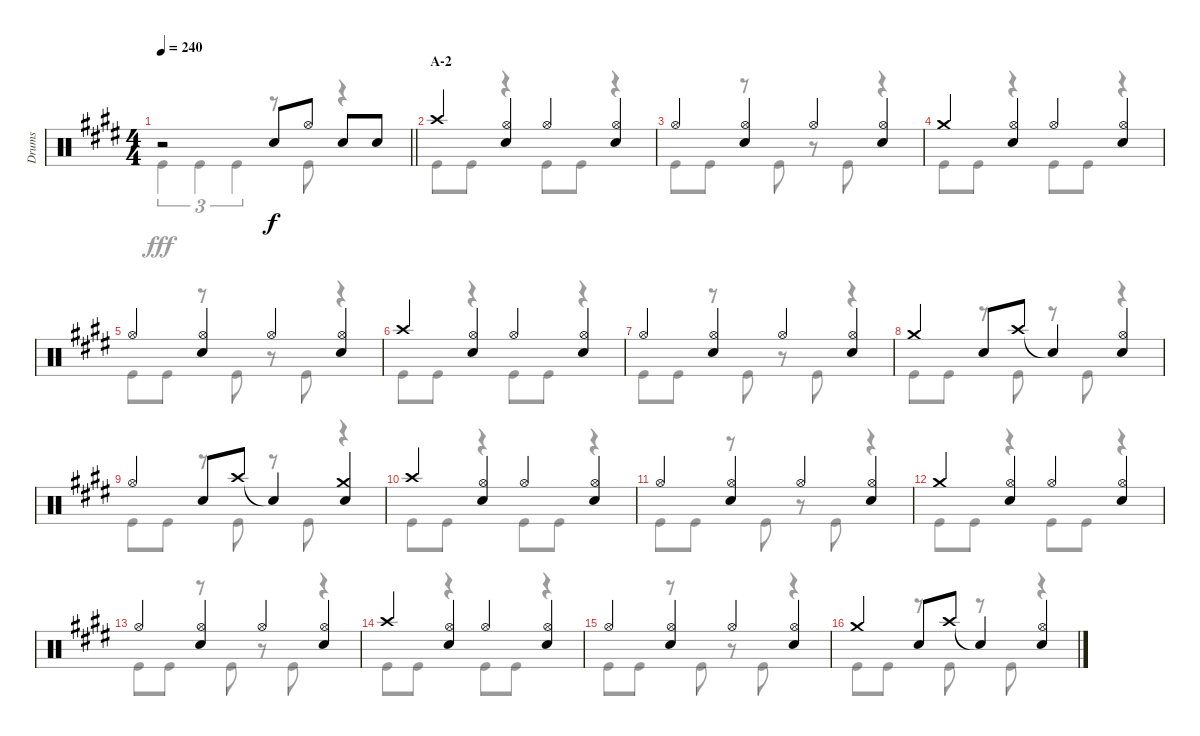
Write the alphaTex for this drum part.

\track ("Drums" "Drums") {instrument percussion}
\staff {score}
\articulation defaults
\voice
\ts (4 4)
\tempo 240
\clef neutral
\barLineRight lightlight
\ks e
r.2{dy f} "Snare (hit) 2".8 "Hi-Hat (open)".8 "Snare (hit) 2".8 "Snare (hit) 2".8 |
\section ("" "A-2")
"Crash high (hit)".4 ("Hi-Hat (open)" "Snare (hit) 2").4 "Hi-Hat (open)".4 ("Hi-Hat (open)" "Snare (hit) 2").4 |
"Hi-Hat (open)".4 ("Hi-Hat (open)" "Snare (hit) 2").4 "Hi-Hat (open)".4 ("Hi-Hat (open)" "Snare (hit) 2").4 |
"Crash medium (hit)".4 ("Hi-Hat (open)" "Snare (hit) 2").4 "Hi-Hat (open)".4 ("Hi-Hat (open)" "Snare (hit) 2").4 |
"Hi-Hat (open)".4 ("Hi-Hat (open)" "Snare (hit) 2").4 "Hi-Hat (open)".4 ("Hi-Hat (open)" "Snare (hit) 2").4 |
"Crash high (hit)".4 ("Hi-Hat (open)" "Snare (hit) 2").4 "Hi-Hat (open)".4 ("Hi-Hat (open)" "Snare (hit) 2").4 |
"Hi-Hat (open)".4 ("Hi-Hat (open)" "Snare (hit) 2").4 "Hi-Hat (open)".4 ("Hi-Hat (open)" "Snare (hit) 2").4 |
"Crash medium (hit)".4 "Snare (hit) 2".8 "Crash high (hit)".8 "Snare (hit)"{t}.4 ("Hi-Hat (open)" "Snare (hit) 2").4 |
"Hi-Hat (open)".4 "Snare (hit) 2".8 "Crash high (hit)".8 "Snare (hit)"{t}.4 ("Crash medium (hit)" "Snare (hit) 2").4 |
"Crash high (hit)".4 ("Hi-Hat (open)" "Snare (hit) 2").4 "Hi-Hat (open)".4 ("Hi-Hat (open)" "Snare (hit) 2").4 |
"Hi-Hat (open)".4 ("Hi-Hat (open)" "Snare (hit) 2").4 "Hi-Hat (open)".4 ("Hi-Hat (open)" "Snare (hit) 2").4 |
"Crash medium (hit)".4 ("Hi-Hat (open)" "Snare (hit) 2").4 "Hi-Hat (open)".4 ("Hi-Hat (open)" "Snare (hit) 2").4 |
"Hi-Hat (open)".4 ("Hi-Hat (open)" "Snare (hit) 2").4 "Hi-Hat (open)".4 ("Hi-Hat (open)" "Snare (hit) 2").4 |
"Crash high (hit)".4 ("Hi-Hat (open)" "Snare (hit) 2").4 "Hi-Hat (open)".4 ("Hi-Hat (open)" "Snare (hit) 2").4 |
"Hi-Hat (open)".4 ("Hi-Hat (open)" "Snare (hit) 2").4 "Hi-Hat (open)".4 ("Hi-Hat (open)" "Snare (hit) 2").4 |
"Crash medium (hit)".4 "Snare (hit) 2".8 "Crash high (hit)".8 "Snare (hit)"{t}.4 ("Hi-Hat (open)" "Snare (hit) 2").4
\voice
\clef neutral
\ottava regular
\simile none
\barLineRight lightlight
\ks e "Kick (hit)".4{tu (3 2) dy fff} "Kick (hit)".4{tu (3 2)} "Kick (hit)".4{tu (3 2)}
r.8 "Kick (hit)".8 r.4 |
"Kick (hit)".8 "Kick (hit)".8 r.4 "Kick (hit)".8 "Kick (hit)".8 r.4 |
"Kick (hit)".8 "Kick (hit)".8 r.8 "Kick (hit)".8 r.8 "Kick (hit)".8 r.4 |
"Kick (hit)".8 "Kick (hit)".8 r.4 "Kick (hit)".8 "Kick (hit)".8 r.4 |
"Kick (hit)".8 "Kick (hit)".8 r.8 "Kick (hit)".8 r.8 "Kick (hit)".8 r.4 |
"Kick (hit)".8 "Kick (hit)".8 r.4 "Kick (hit)".8 "Kick (hit)".8 r.4 |
"Kick (hit)".8 "Kick (hit)".8 r.8 "Kick (hit)".8 r.8 "Kick (hit)".8 r.4 |
"Kick (hit)".8 "Kick (hit)".8 r.8 "Kick (hit)".8 r.8 "Kick (hit)".8 r.4 |
"Kick (hit)".8 "Kick (hit)".8 r.8 "Kick (hit)".8 r.8 "Kick (hit)".8 r.4 |
"Kick (hit)".8 "Kick (hit)".8 r.4 "Kick (hit)".8 "Kick (hit)".8 r.4 |
"Kick (hit)".8 "Kick (hit)".8 r.8 "Kick (hit)".8 r.8 "Kick (hit)".8 r.4 |
"Kick (hit)".8 "Kick (hit)".8 r.4 "Kick (hit)".8 "Kick (hit)".8 r.4 |
"Kick (hit)".8 "Kick (hit)".8 r.8 "Kick (hit)".8 r.8 "Kick (hit)".8 r.4 |
"Kick (hit)".8 "Kick (hit)".8 r.4 "Kick (hit)".8 "Kick (hit)".8 r.4 |
"Kick (hit)".8 "Kick (hit)".8 r.8 "Kick (hit)".8 r.8 "Kick (hit)".8 r.4 |
"Kick (hit)".8 "Kick (hit)".8 r.8 "Kick (hit)".8 r.8 "Kick (hit)".8 r.4
